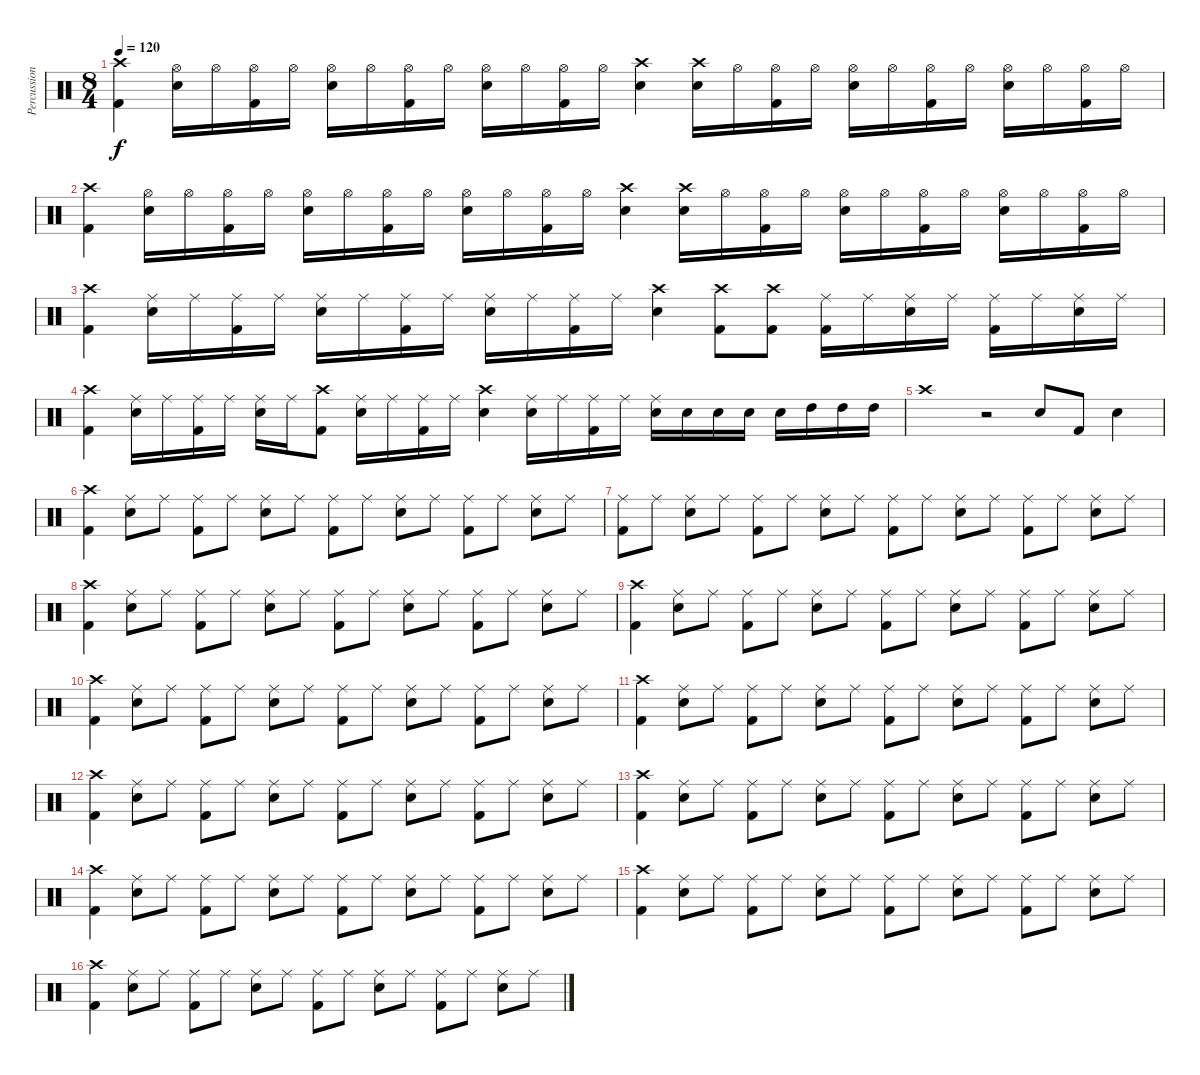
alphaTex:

\track ("Percussion" "Percussion") {instrument percussion}
\staff {score}
\articulation defaults
\ts (8 4)
\tempo 120
\clef neutral
\ks c
("Kick (hit) 2" "Crash high (hit)").4{dy f} ("Snare (hit) 2" "Hi-Hat (open)").16 "Hi-Hat (open)".16 ("Kick (hit) 2" "Hi-Hat (open)").16 "Hi-Hat (open)".16 ("Snare (hit) 2" "Hi-Hat (open)").16 "Hi-Hat (open)".16 ("Kick (hit) 2" "Hi-Hat (open)").16 "Hi-Hat (open)".16 ("Snare (hit) 2" "Hi-Hat (open)").16 "Hi-Hat (open)".16 ("Kick (hit) 2" "Hi-Hat (open)").16 "Hi-Hat (open)".16 ("Snare (hit) 2" "Crash high (hit)").4 ("Snare (hit) 2" "Crash high (hit)").16 "Hi-Hat (open)".16 ("Kick (hit) 2" "Hi-Hat (open)").16 "Hi-Hat (open)".16 ("Snare (hit) 2" "Hi-Hat (open)").16 "Hi-Hat (open)".16 ("Kick (hit) 2" "Hi-Hat (open)").16 "Hi-Hat (open)".16 ("Snare (hit) 2" "Hi-Hat (open)").16 "Hi-Hat (open)".16 ("Kick (hit) 2" "Hi-Hat (open)").16 "Hi-Hat (open)".16 |
("Kick (hit) 2" "Crash high (hit)").4 ("Snare (hit) 2" "Hi-Hat (open)").16 "Hi-Hat (open)".16 ("Kick (hit) 2" "Hi-Hat (open)").16 "Hi-Hat (open)".16 ("Snare (hit) 2" "Hi-Hat (open)").16 "Hi-Hat (open)".16 ("Kick (hit) 2" "Hi-Hat (open)").16 "Hi-Hat (open)".16 ("Snare (hit) 2" "Hi-Hat (open)").16 "Hi-Hat (open)".16 ("Kick (hit) 2" "Hi-Hat (open)").16 "Hi-Hat (open)".16 ("Snare (hit) 2" "Crash high (hit)").4 ("Snare (hit) 2" "Crash high (hit)").16 "Hi-Hat (open)".16 ("Kick (hit) 2" "Hi-Hat (open)").16 "Hi-Hat (open)".16 ("Snare (hit) 2" "Hi-Hat (open)").16 "Hi-Hat (open)".16 ("Kick (hit) 2" "Hi-Hat (open)").16 "Hi-Hat (open)".16 ("Snare (hit) 2" "Hi-Hat (open)").16 "Hi-Hat (open)".16 ("Kick (hit) 2" "Hi-Hat (open)").16 "Hi-Hat (open)".16 |
("Kick (hit) 2" "Crash high (hit)").4 ("Snare (hit) 2" "Ride (middle)").16 "Ride (middle)".16 ("Kick (hit) 2" "Ride (middle)").16 "Ride (middle)".16 ("Snare (hit) 2" "Ride (middle)").16 "Ride (middle)".16 ("Kick (hit) 2" "Ride (middle)").16 "Ride (middle)".16 ("Snare (hit) 2" "Ride (middle)").16 "Ride (middle)".16 ("Kick (hit) 2" "Ride (middle)").16 "Ride (middle)".16 ("Snare (hit) 2" "Crash high (hit)").4 ("Crash high (hit)" "Kick (hit) 2").8 ("Crash high (hit)" "Kick (hit) 2").8 ("Kick (hit) 2" "Ride (middle)").16 "Ride (middle)".16 ("Snare (hit) 2" "Ride (middle)").16 "Ride (middle)".16 ("Kick (hit) 2" "Ride (middle)").16 "Ride (middle)".16 ("Snare (hit) 2" "Ride (middle)").16 "Ride (middle)".16 |
("Kick (hit) 2" "Crash high (hit)").4 ("Snare (hit) 2" "Ride (middle)").16 "Ride (middle)".16 ("Kick (hit) 2" "Ride (middle)").16 "Ride (middle)".16 ("Snare (hit) 2" "Ride (middle)").16 "Ride (middle)".16 ("Crash high (hit)" "Kick (hit) 2").8 ("Snare (hit) 2" "Ride (middle)").16 "Ride (middle)".16 ("Kick (hit) 2" "Ride (middle)").16 "Ride (middle)".16 ("Snare (hit) 2" "Crash high (hit)").4 ("Snare (hit) 2" "Ride (middle)").16 "Ride (middle)".16 ("Kick (hit) 2" "Ride (middle)").16 "Ride (middle)".16 ("Snare (hit) 2" "Ride (middle)").16 "Snare (hit) 2".16 "Snare (hit) 2".16 "Snare (hit) 2".16 "Snare (hit) 2".16 "High Tom (hit)".16 "High Tom (hit)".16 "High Tom (hit)".16 |
"Crash high (hit)".1 r.2 "Snare (hit) 2".8 "Kick (hit) 2".8 "Snare (hit) 2".4 |
("Kick (hit) 2" "Crash high (hit)").4 ("Snare (hit) 2" "Ride (middle)").8 "Ride (middle)".8 ("Kick (hit) 2" "Ride (middle)").8 "Ride (middle)".8 ("Snare (hit) 2" "Ride (middle)").8 "Ride (middle)".8 ("Kick (hit) 2" "Ride (middle)").8 "Ride (middle)".8 ("Snare (hit) 2" "Ride (middle)").8 "Ride (middle)".8 ("Kick (hit) 2" "Ride (middle)").8 "Ride (middle)".8 ("Snare (hit) 2" "Ride (middle)").8 "Ride (middle)".8 |
("Kick (hit) 2" "Ride (middle)").8 "Ride (middle)".8 ("Snare (hit) 2" "Ride (middle)").8 "Ride (middle)".8 ("Kick (hit) 2" "Ride (middle)").8 "Ride (middle)".8 ("Snare (hit) 2" "Ride (middle)").8 "Ride (middle)".8 ("Kick (hit) 2" "Ride (middle)").8 "Ride (middle)".8 ("Snare (hit) 2" "Ride (middle)").8 "Ride (middle)".8 ("Kick (hit) 2" "Ride (middle)").8 "Ride (middle)".8 ("Snare (hit) 2" "Ride (middle)").8 "Ride (middle)".8 |
("Kick (hit) 2" "Crash high (hit)").4 ("Snare (hit) 2" "Ride (middle)").8 "Ride (middle)".8 ("Kick (hit) 2" "Ride (middle)").8 "Ride (middle)".8 ("Snare (hit) 2" "Ride (middle)").8 "Ride (middle)".8 ("Kick (hit) 2" "Ride (middle)").8 "Ride (middle)".8 ("Snare (hit) 2" "Ride (middle)").8 "Ride (middle)".8 ("Kick (hit) 2" "Ride (middle)").8 "Ride (middle)".8 ("Snare (hit) 2" "Ride (middle)").8 "Ride (middle)".8 |
("Kick (hit) 2" "Crash high (hit)").4 ("Snare (hit) 2" "Ride (middle)").8 "Ride (middle)".8 ("Kick (hit) 2" "Ride (middle)").8 "Ride (middle)".8 ("Snare (hit) 2" "Ride (middle)").8 "Ride (middle)".8 ("Kick (hit) 2" "Ride (middle)").8 "Ride (middle)".8 ("Snare (hit) 2" "Ride (middle)").8 "Ride (middle)".8 ("Kick (hit) 2" "Ride (middle)").8 "Ride (middle)".8 ("Snare (hit) 2" "Ride (middle)").8 "Ride (middle)".8 |
("Kick (hit) 2" "Crash high (hit)").4 ("Snare (hit) 2" "Ride (middle)").8 "Ride (middle)".8 ("Kick (hit) 2" "Ride (middle)").8 "Ride (middle)".8 ("Snare (hit) 2" "Ride (middle)").8 "Ride (middle)".8 ("Kick (hit) 2" "Ride (middle)").8 "Ride (middle)".8 ("Snare (hit) 2" "Ride (middle)").8 "Ride (middle)".8 ("Kick (hit) 2" "Ride (middle)").8 "Ride (middle)".8 ("Snare (hit) 2" "Ride (middle)").8 "Ride (middle)".8 |
("Kick (hit) 2" "Crash high (hit)").4 ("Snare (hit) 2" "Ride (middle)").8 "Ride (middle)".8 ("Kick (hit) 2" "Ride (middle)").8 "Ride (middle)".8 ("Snare (hit) 2" "Ride (middle)").8 "Ride (middle)".8 ("Kick (hit) 2" "Ride (middle)").8 "Ride (middle)".8 ("Snare (hit) 2" "Ride (middle)").8 "Ride (middle)".8 ("Kick (hit) 2" "Ride (middle)").8 "Ride (middle)".8 ("Snare (hit) 2" "Ride (middle)").8 "Ride (middle)".8 |
("Kick (hit) 2" "Crash high (hit)").4 ("Snare (hit) 2" "Ride (middle)").8 "Ride (middle)".8 ("Kick (hit) 2" "Ride (middle)").8 "Ride (middle)".8 ("Snare (hit) 2" "Ride (middle)").8 "Ride (middle)".8 ("Kick (hit) 2" "Ride (middle)").8 "Ride (middle)".8 ("Snare (hit) 2" "Ride (middle)").8 "Ride (middle)".8 ("Kick (hit) 2" "Ride (middle)").8 "Ride (middle)".8 ("Snare (hit) 2" "Ride (middle)").8 "Ride (middle)".8 |
("Kick (hit) 2" "Crash high (hit)").4 ("Snare (hit) 2" "Ride (middle)").8 "Ride (middle)".8 ("Kick (hit) 2" "Ride (middle)").8 "Ride (middle)".8 ("Snare (hit) 2" "Ride (middle)").8 "Ride (middle)".8 ("Kick (hit) 2" "Ride (middle)").8 "Ride (middle)".8 ("Snare (hit) 2" "Ride (middle)").8 "Ride (middle)".8 ("Kick (hit) 2" "Ride (middle)").8 "Ride (middle)".8 ("Snare (hit) 2" "Ride (middle)").8 "Ride (middle)".8 |
("Kick (hit) 2" "Crash high (hit)").4 ("Snare (hit) 2" "Ride (middle)").8 "Ride (middle)".8 ("Kick (hit) 2" "Ride (middle)").8 "Ride (middle)".8 ("Snare (hit) 2" "Ride (middle)").8 "Ride (middle)".8 ("Kick (hit) 2" "Ride (middle)").8 "Ride (middle)".8 ("Snare (hit) 2" "Ride (middle)").8 "Ride (middle)".8 ("Kick (hit) 2" "Ride (middle)").8 "Ride (middle)".8 ("Snare (hit) 2" "Ride (middle)").8 "Ride (middle)".8 |
("Kick (hit) 2" "Crash high (hit)").4 ("Snare (hit) 2" "Ride (middle)").8 "Ride (middle)".8 ("Kick (hit) 2" "Ride (middle)").8 "Ride (middle)".8 ("Snare (hit) 2" "Ride (middle)").8 "Ride (middle)".8 ("Kick (hit) 2" "Ride (middle)").8 "Ride (middle)".8 ("Snare (hit) 2" "Ride (middle)").8 "Ride (middle)".8 ("Kick (hit) 2" "Ride (middle)").8 "Ride (middle)".8 ("Snare (hit) 2" "Ride (middle)").8 "Ride (middle)".8 |
("Kick (hit) 2" "Crash high (hit)").4 ("Snare (hit) 2" "Ride (middle)").8 "Ride (middle)".8 ("Kick (hit) 2" "Ride (middle)").8 "Ride (middle)".8 ("Snare (hit) 2" "Ride (middle)").8 "Ride (middle)".8 ("Kick (hit) 2" "Ride (middle)").8 "Ride (middle)".8 ("Snare (hit) 2" "Ride (middle)").8 "Ride (middle)".8 ("Kick (hit) 2" "Ride (middle)").8 "Ride (middle)".8 ("Snare (hit) 2" "Ride (middle)").8 "Ride (middle)".8
